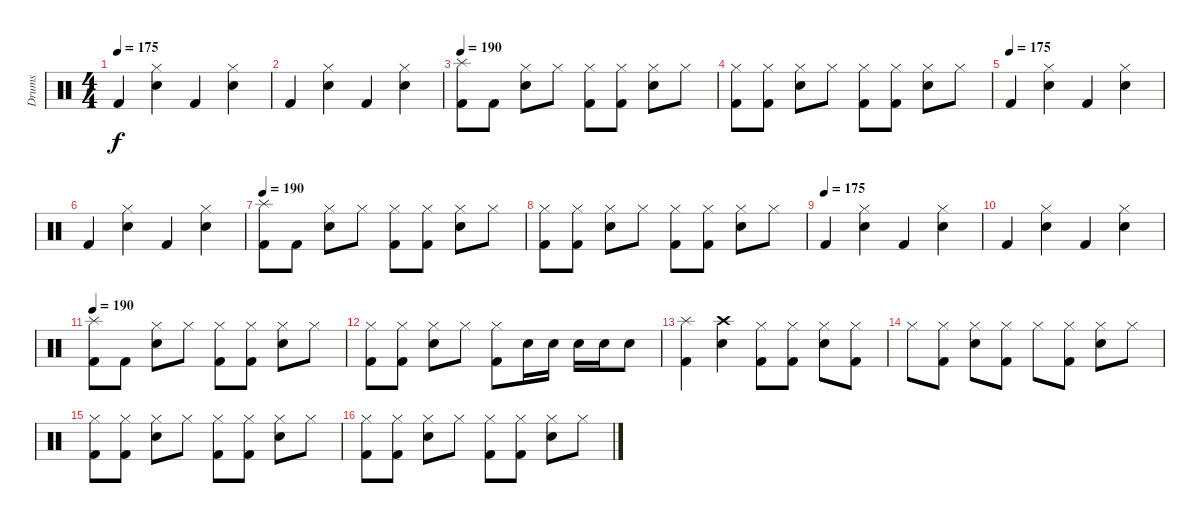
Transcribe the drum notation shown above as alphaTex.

\track ("Drums" "Drums") {instrument percussion}
\staff {score}
\articulation defaults
\ts (4 4)
\tempo 175
\clef neutral
\ks c "Kick (hit) 2".4{dy f}
("Snare (hit) 2" "Hi-Hat (closed)").4 "Kick (hit) 2".4 ("Snare (hit) 2" "Hi-Hat (closed)").4 |
"Kick (hit) 2".4 ("Snare (hit) 2" "Hi-Hat (closed)").4 "Kick (hit) 2".4 ("Snare (hit) 2" "Hi-Hat (closed)").4 |
\tempo 190
("Kick (hit) 2" "Splash (hit)").8 "Kick (hit) 2".8 ("Snare (hit) 2" "Hi-Hat (closed)").8 "Hi-Hat (closed)".8 ("Kick (hit) 2" "Hi-Hat (closed)").8 ("Kick (hit) 2" "Hi-Hat (closed)").8 ("Snare (hit) 2" "Hi-Hat (closed)").8 "Hi-Hat (closed)".8 |
("Kick (hit) 2" "Hi-Hat (closed)").8 ("Kick (hit) 2" "Hi-Hat (closed)").8 ("Snare (hit) 2" "Hi-Hat (closed)").8 "Hi-Hat (closed)".8 ("Kick (hit) 2" "Hi-Hat (closed)").8 ("Kick (hit) 2" "Hi-Hat (closed)").8 ("Snare (hit) 2" "Hi-Hat (closed)").8 "Hi-Hat (closed)".8 |
\tempo (175)
"Kick (hit) 2".4 ("Snare (hit) 2" "Hi-Hat (closed)").4 "Kick (hit) 2".4 ("Snare (hit) 2" "Hi-Hat (closed)").4 |
"Kick (hit) 2".4 ("Snare (hit) 2" "Hi-Hat (closed)").4 "Kick (hit) 2".4 ("Snare (hit) 2" "Hi-Hat (closed)").4 |
\tempo 190
("Kick (hit) 2" "Splash (hit)").8 "Kick (hit) 2".8 ("Snare (hit) 2" "Hi-Hat (closed)").8 "Hi-Hat (closed)".8 ("Kick (hit) 2" "Hi-Hat (closed)").8 ("Kick (hit) 2" "Hi-Hat (closed)").8 ("Snare (hit) 2" "Hi-Hat (closed)").8 "Hi-Hat (closed)".8 |
("Kick (hit) 2" "Hi-Hat (closed)").8 ("Kick (hit) 2" "Hi-Hat (closed)").8 ("Snare (hit) 2" "Hi-Hat (closed)").8 "Hi-Hat (closed)".8 ("Kick (hit) 2" "Hi-Hat (closed)").8 ("Kick (hit) 2" "Hi-Hat (closed)").8 ("Snare (hit) 2" "Hi-Hat (closed)").8 "Hi-Hat (closed)".8 |
\tempo (175)
"Kick (hit) 2".4 ("Snare (hit) 2" "Hi-Hat (closed)").4 "Kick (hit) 2".4 ("Snare (hit) 2" "Hi-Hat (closed)").4 |
"Kick (hit) 2".4 ("Snare (hit) 2" "Hi-Hat (closed)").4 "Kick (hit) 2".4 ("Snare (hit) 2" "Hi-Hat (closed)").4 |
\tempo 190
("Kick (hit) 2" "Splash (hit)").8 "Kick (hit) 2".8 ("Snare (hit) 2" "Hi-Hat (closed)").8 "Hi-Hat (closed)".8 ("Kick (hit) 2" "Hi-Hat (closed)").8 ("Kick (hit) 2" "Hi-Hat (closed)").8 ("Snare (hit) 2" "Hi-Hat (closed)").8 "Hi-Hat (closed)".8 |
("Kick (hit) 2" "Hi-Hat (closed)").8 ("Kick (hit) 2" "Hi-Hat (closed)").8 ("Snare (hit) 2" "Hi-Hat (closed)").8 "Hi-Hat (closed)".8 ("Kick (hit) 2" "Hi-Hat (closed)").8 "Snare (hit) 2".16 "Snare (hit) 2".16 "Snare (hit) 2".16 "Snare (hit) 2".16 "Snare (hit) 2".8 |
("Kick (hit) 2" "Splash (hit)").4 ("Snare (hit) 2" "Crash high (hit)").4 ("Kick (hit) 2" "Hi-Hat (closed)").8 ("Kick (hit) 2" "Hi-Hat (closed)").8 ("Snare (hit) 2" "Hi-Hat (closed)").8 ("Kick (hit) 2" "Hi-Hat (closed)").8 |
"Hi-Hat (closed)".8 ("Kick (hit) 2" "Hi-Hat (closed)").8 ("Snare (hit) 2" "Hi-Hat (closed)").8 ("Kick (hit) 2" "Hi-Hat (closed)").8 "Hi-Hat (closed)".8 ("Kick (hit) 2" "Hi-Hat (closed)").8 ("Snare (hit) 2" "Hi-Hat (closed)").8 "Hi-Hat (closed)".8 |
("Kick (hit) 2" "Hi-Hat (closed)").8 ("Kick (hit) 2" "Hi-Hat (closed)").8 ("Snare (hit) 2" "Hi-Hat (closed)").8 "Hi-Hat (closed)".8 ("Kick (hit) 2" "Hi-Hat (closed)").8 ("Kick (hit) 2" "Hi-Hat (closed)").8 ("Snare (hit) 2" "Hi-Hat (closed)").8 "Hi-Hat (closed)".8 |
("Kick (hit) 2" "Hi-Hat (closed)").8 ("Kick (hit) 2" "Hi-Hat (closed)").8 ("Snare (hit) 2" "Hi-Hat (closed)").8 "Hi-Hat (closed)".8 ("Kick (hit) 2" "Hi-Hat (closed)").8 ("Kick (hit) 2" "Hi-Hat (closed)").8 ("Snare (hit) 2" "Hi-Hat (closed)").8 "Hi-Hat (closed)".8
